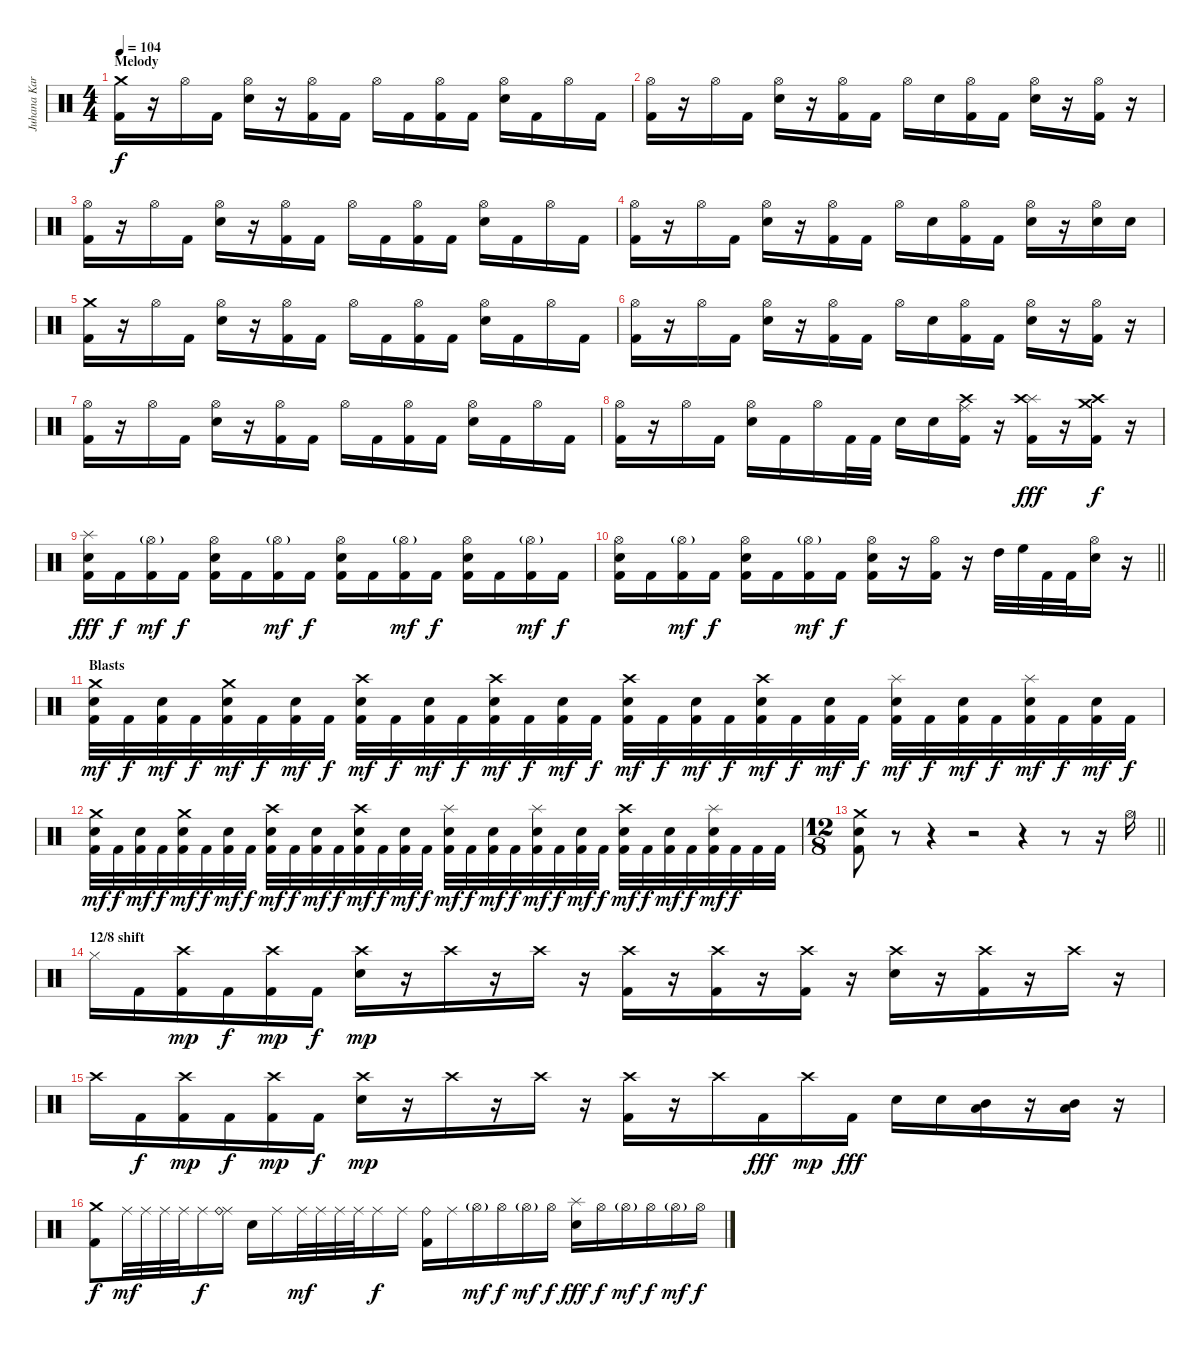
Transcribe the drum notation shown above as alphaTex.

\track ("Juhana Karlsson" "Juhana Kar") {instrument percussion}
\staff {score}
\articulation defaults
\ts (4 4)
\section ("" "Melody")
\tempo 104
\clef neutral
\ks c
("Crash medium (hit)" "Kick (hit) 2").16{dy f} r.16 "Hi-Hat (open)".16 "Kick (hit) 2".16 ("Hi-Hat (open)" "Electric Snare (hit)").16 r.16 ("Hi-Hat (open)" "Kick (hit) 2").16 "Kick (hit) 2".16 "Hi-Hat (open)".16 "Kick (hit) 2".16 ("Hi-Hat (open)" "Kick (hit) 2").16 "Kick (hit) 2".16 ("Hi-Hat (open)" "Electric Snare (hit)").16 "Kick (hit) 2".16 "Hi-Hat (open)".16 "Kick (hit) 2".16 |
("Hi-Hat (open)" "Kick (hit) 2").16 r.16 "Hi-Hat (open)".16 "Kick (hit) 2".16 ("Hi-Hat (open)" "Electric Snare (hit)").16 r.16 ("Hi-Hat (open)" "Kick (hit) 2").16 "Kick (hit) 2".16 "Hi-Hat (open)".16 "Electric Snare (hit)".16 ("Hi-Hat (open)" "Kick (hit) 2").16 "Kick (hit) 2".16 ("Hi-Hat (open)" "Electric Snare (hit)").16 r.16 ("Hi-Hat (open)" "Kick (hit) 2").16 r.16 |
("Hi-Hat (open)" "Kick (hit) 2").16 r.16 "Hi-Hat (open)".16 "Kick (hit) 2".16 ("Hi-Hat (open)" "Electric Snare (hit)").16 r.16 ("Hi-Hat (open)" "Kick (hit) 2").16 "Kick (hit) 2".16 "Hi-Hat (open)".16 "Kick (hit) 2".16 ("Hi-Hat (open)" "Kick (hit) 2").16 "Kick (hit) 2".16 ("Hi-Hat (open)" "Electric Snare (hit)").16 "Kick (hit) 2".16 "Hi-Hat (open)".16 "Kick (hit) 2".16 |
("Hi-Hat (open)" "Kick (hit) 2").16 r.16 "Hi-Hat (open)".16 "Kick (hit) 2".16 ("Hi-Hat (open)" "Electric Snare (hit)").16 r.16 ("Hi-Hat (open)" "Kick (hit) 2").16 "Kick (hit) 2".16 "Hi-Hat (open)".16 "Electric Snare (hit)".16 ("Hi-Hat (open)" "Kick (hit) 2").16 "Kick (hit) 2".16 ("Hi-Hat (open)" "Electric Snare (hit)").16 r.16 ("Hi-Hat (open)" "Electric Snare (hit)").16 "Electric Snare (hit)".16 |
("Crash medium (hit)" "Kick (hit) 2").16 r.16 "Hi-Hat (open)".16 "Kick (hit) 2".16 ("Hi-Hat (open)" "Electric Snare (hit)").16 r.16 ("Hi-Hat (open)" "Kick (hit) 2").16 "Kick (hit) 2".16 "Hi-Hat (open)".16 "Kick (hit) 2".16 ("Hi-Hat (open)" "Kick (hit) 2").16 "Kick (hit) 2".16 ("Hi-Hat (open)" "Electric Snare (hit)").16 "Kick (hit) 2".16 "Hi-Hat (open)".16 "Kick (hit) 2".16 |
("Hi-Hat (open)" "Kick (hit) 2").16 r.16 "Hi-Hat (open)".16 "Kick (hit) 2".16 ("Hi-Hat (open)" "Electric Snare (hit)").16 r.16 ("Hi-Hat (open)" "Kick (hit) 2").16 "Kick (hit) 2".16 "Hi-Hat (open)".16 "Electric Snare (hit)".16 ("Hi-Hat (open)" "Kick (hit) 2").16 "Kick (hit) 2".16 ("Hi-Hat (open)" "Electric Snare (hit)").16 r.16 ("Hi-Hat (open)" "Kick (hit) 2").16 r.16 |
("Hi-Hat (open)" "Kick (hit) 2").16 r.16 "Hi-Hat (open)".16 "Kick (hit) 2".16 ("Hi-Hat (open)" "Electric Snare (hit)").16 r.16 ("Hi-Hat (open)" "Kick (hit) 2").16 "Kick (hit) 2".16 "Hi-Hat (open)".16 "Kick (hit) 2".16 ("Hi-Hat (open)" "Kick (hit) 2").16 "Kick (hit) 2".16 ("Hi-Hat (open)" "Electric Snare (hit)").16 "Kick (hit) 2".16 "Hi-Hat (open)".16 "Kick (hit) 2".16 |
("Hi-Hat (open)" "Kick (hit) 2").16 r.16 "Hi-Hat (open)".16 "Kick (hit) 2".16 ("Hi-Hat (open)" "Electric Snare (hit)").16 "Kick (hit) 2".16 "Hi-Hat (open)".16 "Kick (hit) 2".32 "Kick (hit) 2".32 "Electric Snare (hit)".16 "Electric Snare (hit)".16 ("Crash high (hit)" "Ride (middle)" "Kick (hit) 2").16 r.16 ("Splash (hit)" "Crash high (hit)" "Kick (hit) 2").16{dy fff} r.16 ("Crash high (hit)" "Crash medium (hit)" "Kick (hit) 2").16{dy f} r.16 |
("Splash (hit)" "Electric Snare (hit)" "Kick (hit) 2").16{dy fff} "Kick (hit) 2".16{dy f} ("Hi-Hat (open)"{g} "Kick (hit) 2").16{dy mf} "Kick (hit) 2".16{dy f} ("Hi-Hat (open)" "Electric Snare (hit)" "Kick (hit) 2").16 "Kick (hit) 2".16 ("Hi-Hat (open)"{g} "Kick (hit) 2").16{dy mf} "Kick (hit) 2".16{dy f} ("Hi-Hat (open)" "Electric Snare (hit)" "Kick (hit) 2").16 "Kick (hit) 2".16 ("Hi-Hat (open)"{g} "Kick (hit) 2").16{dy mf} "Kick (hit) 2".16{dy f} ("Hi-Hat (open)" "Electric Snare (hit)" "Kick (hit) 2").16 "Kick (hit) 2".16 ("Hi-Hat (open)"{g} "Kick (hit) 2").16{dy mf} "Kick (hit) 2".16{dy f} |
\barLineRight lightlight
("Hi-Hat (open)" "Electric Snare (hit)" "Kick (hit) 2").16 "Kick (hit) 2".16 ("Hi-Hat (open)"{g} "Kick (hit) 2").16{dy mf} "Kick (hit) 2".16{dy f} ("Hi-Hat (open)" "Electric Snare (hit)" "Kick (hit) 2").16 "Kick (hit) 2".16 ("Hi-Hat (open)"{g} "Kick (hit) 2").16{dy mf} "Kick (hit) 2".16{dy f} ("Hi-Hat (open)" "Electric Snare (hit)" "Kick (hit) 2").16 r.16 ("Hi-Hat (open)" "Kick (hit) 2").16 r.16 "High Tom (hit)".32 "High Floor Tom (hit)".32 "Kick (hit) 2".32 "Kick (hit) 2".32 ("Hi-Hat (open)" "Electric Snare (hit)").16 r.16 |
\section ("" "Blasts")
("Crash medium (hit)" "Electric Snare (hit)" "Kick (hit) 2").32{dy mf} "Kick (hit) 2".32{dy f} ("Electric Snare (hit)" "Kick (hit) 2").32{dy mf} "Kick (hit) 2".32{dy f} ("Crash medium (hit)" "Electric Snare (hit)" "Kick (hit) 2").32{dy mf} "Kick (hit) 2".32{dy f} ("Electric Snare (hit)" "Kick (hit) 2").32{dy mf} "Kick (hit) 2".32{dy f} ("Crash high (hit)" "Electric Snare (hit)" "Kick (hit) 2").32{dy mf} "Kick (hit) 2".32{dy f} ("Electric Snare (hit)" "Kick (hit) 2").32{dy mf} "Kick (hit) 2".32{dy f} ("Crash high (hit)" "Electric Snare (hit)" "Kick (hit) 2").32{dy mf} "Kick (hit) 2".32{dy f} ("Electric Snare (hit)" "Kick (hit) 2").32{dy mf} "Kick (hit) 2".32{dy f} ("Crash high (hit)" "Electric Snare (hit)" "Kick (hit) 2").32{dy mf} "Kick (hit) 2".32{dy f} ("Electric Snare (hit)" "Kick (hit) 2").32{dy mf} "Kick (hit) 2".32{dy f} ("Crash high (hit)" "Electric Snare (hit)" "Kick (hit) 2").32{dy mf} "Kick (hit) 2".32{dy f} ("Electric Snare (hit)" "Kick (hit) 2").32{dy mf} "Kick (hit) 2".32{dy f} ("Splash (hit)" "Electric Snare (hit)" "Kick (hit) 2").32{dy mf} "Kick (hit) 2".32{dy f} ("Electric Snare (hit)" "Kick (hit) 2").32{dy mf} "Kick (hit) 2".32{dy f} ("Splash (hit)" "Electric Snare (hit)" "Kick (hit) 2").32{dy mf} "Kick (hit) 2".32{dy f} ("Electric Snare (hit)" "Kick (hit) 2").32{dy mf} "Kick (hit) 2".32{dy f} |
("Crash medium (hit)" "Electric Snare (hit)" "Kick (hit) 2").32{dy mf} "Kick (hit) 2".32{dy f} ("Electric Snare (hit)" "Kick (hit) 2").32{dy mf} "Kick (hit) 2".32{dy f} ("Crash medium (hit)" "Electric Snare (hit)" "Kick (hit) 2").32{dy mf} "Kick (hit) 2".32{dy f} ("Electric Snare (hit)" "Kick (hit) 2").32{dy mf} "Kick (hit) 2".32{dy f} ("Crash high (hit)" "Electric Snare (hit)" "Kick (hit) 2").32{dy mf} "Kick (hit) 2".32{dy f} ("Electric Snare (hit)" "Kick (hit) 2").32{dy mf} "Kick (hit) 2".32{dy f} ("Crash high (hit)" "Electric Snare (hit)" "Kick (hit) 2").32{dy mf} "Kick (hit) 2".32{dy f} ("Electric Snare (hit)" "Kick (hit) 2").32{dy mf} "Kick (hit) 2".32{dy f} ("Splash (hit)" "Electric Snare (hit)" "Kick (hit) 2").32{dy mf} "Kick (hit) 2".32{dy f} ("Electric Snare (hit)" "Kick (hit) 2").32{dy mf} "Kick (hit) 2".32{dy f} ("Splash (hit)" "Electric Snare (hit)" "Kick (hit) 2").32{dy mf} "Kick (hit) 2".32{dy f} ("Electric Snare (hit)" "Kick (hit) 2").32{dy mf} "Kick (hit) 2".32{dy f} ("Crash high (hit)" "Electric Snare (hit)" "Kick (hit) 2").32{dy mf} "Kick (hit) 2".32{dy f} ("Electric Snare (hit)" "Kick (hit) 2").32{dy mf} "Kick (hit) 2".32{dy f} ("Splash (hit)" "Electric Snare (hit)" "Kick (hit) 2").32{dy mf} "Kick (hit) 2".32{dy f} "Kick (hit) 2".32 "Kick (hit) 2".32 |
\ts (12 8)
\barLineRight lightlight
("Crash medium (hit)" "Electric Snare (hit)" "Kick (hit) 2").8 r.8{volume 0} r.4 r.2 r.4 r.8 r.16 "Hi-Hat (open)".16{volume 14} |
\section ("" "12/8 shift")
"Hi-Hat (closed)".16{volume 14} "Kick (hit) 2".16 ("Crash high (hit)" "Kick (hit) 2").16{dy mp} "Kick (hit) 2".16{dy f} ("Crash high (hit)" "Kick (hit) 2").16{dy mp} "Kick (hit) 2".16{dy f} ("Crash high (hit)" "Electric Snare (hit)").16{dy mp} r.16 "Crash high (hit)".16 r.16 "Crash high (hit)".16 r.16 ("Crash high (hit)" "Kick (hit) 2").16 r.16 ("Crash high (hit)" "Kick (hit) 2").16 r.16 ("Crash high (hit)" "Kick (hit) 2").16 r.16 ("Crash high (hit)" "Electric Snare (hit)").16 r.16 ("Crash high (hit)" "Kick (hit) 2").16 r.16 "Crash high (hit)".16 r.16 |
"Crash high (hit)".16 "Kick (hit) 2".16{dy f} ("Crash high (hit)" "Kick (hit) 2").16{dy mp} "Kick (hit) 2".16{dy f} ("Crash high (hit)" "Kick (hit) 2").16{dy mp} "Kick (hit) 2".16{dy f} ("Crash high (hit)" "Electric Snare (hit)").16{dy mp} r.16 "Crash high (hit)".16 r.16 "Crash high (hit)".16 r.16 ("Crash high (hit)" "Kick (hit) 2").16 r.16 "Crash high (hit)".16 "Kick (hit) 2".16{dy fff} "Crash high (hit)".16{dy mp} "Kick (hit) 2".16{dy fff} "Electric Snare (hit)".16 "Electric Snare (hit)".16 ("Mid Tom (hit)" "Low Tom (hit)").16 r.16 ("Mid Tom (hit)" "Low Tom (hit)").16 r.16 |
("Crash medium (hit)" "Kick (hit) 2").8{dy f} "Ride (middle)".32{dy mf} "Ride (middle)".32 "Ride (middle)".32 "Ride (middle)".32 "Ride (middle)".16{dy f} ("Ride (middle)" "Ride (bell)").16 "Electric Snare (hit)".16 "Ride (middle)".16 "Ride (middle)".32{dy mf} "Ride (middle)".32 "Ride (middle)".32 "Ride (middle)".32 "Ride (middle)".16{dy f} "Ride (middle)".16 ("Ride (bell)" "Kick (hit) 2").16 "Ride (middle)".16 "Hi-Hat (open)"{g}.16{dy mf} "Hi-Hat (open)".16{dy f} "Hi-Hat (open)"{g}.16{dy mf} "Hi-Hat (open)".16{dy f} ("Splash (hit)" "Electric Snare (hit)").16{dy fff} "Hi-Hat (open)".16{dy f} "Hi-Hat (open)"{g}.16{dy mf} "Hi-Hat (open)".16{dy f} "Hi-Hat (open)"{g}.16{dy mf} "Hi-Hat (open)".16{dy f}
